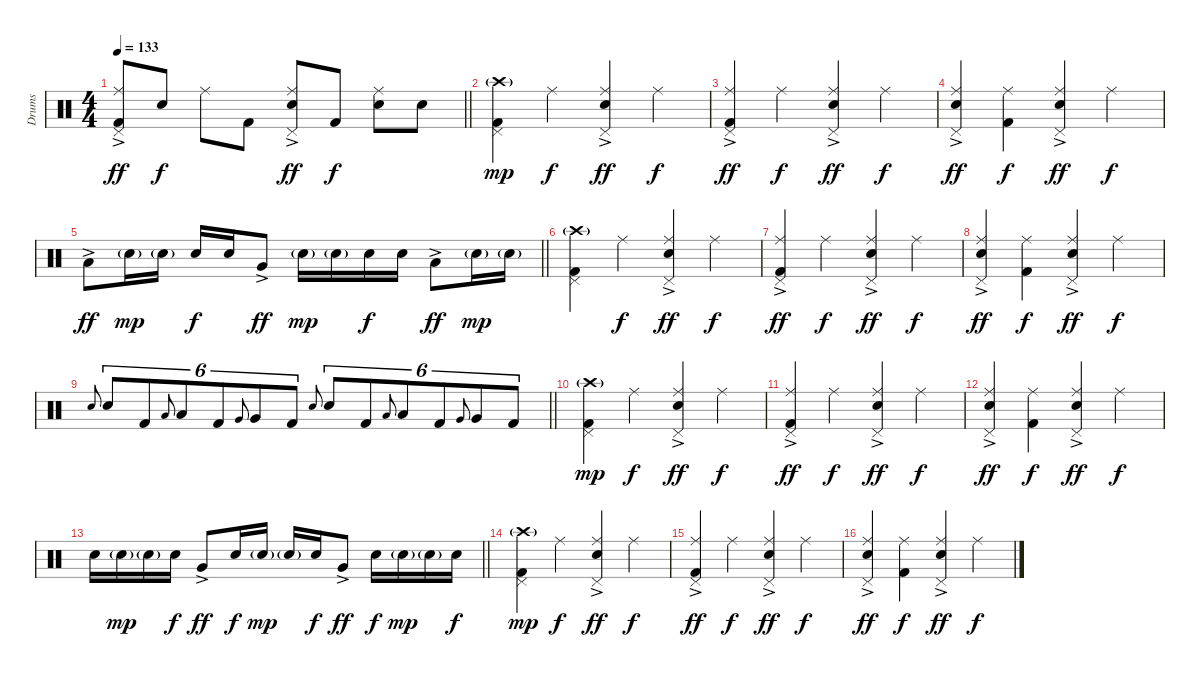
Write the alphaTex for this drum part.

\track ("Drums" "Drums") {instrument percussion}
\staff {score}
\articulation defaults
\ts (4 4)
\tempo 133
\clef neutral
\barLineRight lightlight
\ks c
("Pedal Hi-Hat (hit)" "Ride (middle)"{ac} "Kick (hit) 2").8{dy ff} "Snare (hit) 2".8{dy f} "Ride (middle)".8 "Kick (hit) 2".8 ("Pedal Hi-Hat (hit)" "Ride (middle)"{ac} "Snare (hit) 2").8{dy ff} "Kick (hit) 2".8{dy f} ("Ride (middle)" "Snare (hit) 2").8 "Snare (hit) 2".8 |
\section ("" "")
("Crash high (hit)"{g} "Pedal Hi-Hat (hit)" "Kick (hit) 2").4{dy mp} "Ride (middle)".4{dy f} ("Pedal Hi-Hat (hit)" "Ride (middle)"{ac} "Snare (hit) 2").4{dy ff} "Ride (middle)".4{dy f} |
("Pedal Hi-Hat (hit)" "Ride (middle)"{ac} "Kick (hit) 2").4{dy ff} "Ride (middle)".4{dy f} ("Pedal Hi-Hat (hit)" "Ride (middle)"{ac} "Snare (hit) 2").4{dy ff} "Ride (middle)".4{dy f} |
("Pedal Hi-Hat (hit)" "Ride (middle)"{ac} "Snare (hit) 2").4{dy ff} ("Ride (middle)" "Kick (hit) 2").4{dy f} ("Pedal Hi-Hat (hit)" "Ride (middle)"{ac} "Snare (hit) 2").4{dy ff} "Ride (middle)".4{dy f} |
\barLineRight lightlight "Low Tom (hit)"{ac}.8{dy ff} "Snare (hit) 2"{g}.16{dy mp} "Snare (hit) 2"{g}.16 "Snare (hit) 2".16{dy f} "Snare (hit) 2".16 "Very Low Tom (hit)"{ac}.8{dy ff} "Snare (hit) 2"{g}.16{dy mp} "Snare (hit) 2"{g}.16 "Snare (hit) 2".16{dy f} "Snare (hit) 2".16 "Low Floor Tom (hit)"{ac}.8{dy ff} "Snare (hit) 2"{g}.16{dy mp} "Snare (hit) 2"{g}.16
|
\section ("" "")
("Crash high (hit)"{g} "Pedal Hi-Hat (hit)" "Kick (hit) 2").4 "Ride (middle)".4{dy f} ("Pedal Hi-Hat (hit)" "Ride (middle)"{ac} "Snare (hit) 2").4{dy ff} "Ride (middle)".4{dy f} |
("Pedal Hi-Hat (hit)" "Ride (middle)"{ac} "Kick (hit) 2").4{dy ff} "Ride (middle)".4{dy f} ("Pedal Hi-Hat (hit)" "Ride (middle)"{ac} "Snare (hit) 2").4{dy ff} "Ride (middle)".4{dy f} |
("Pedal Hi-Hat (hit)" "Ride (middle)"{ac} "Snare (hit) 2").4{dy ff} ("Ride (middle)" "Kick (hit) 2").4{dy f} ("Pedal Hi-Hat (hit)" "Ride (middle)"{ac} "Snare (hit) 2").4{dy ff} "Ride (middle)".4{dy f} |
\barLineRight lightlight "Snare (hit) 2".8{gr onbeat} "Snare (hit) 2".8{tu (6 4)} "Kick (hit) 2".8{tu (6 4)} "Low Tom (hit)".8{gr onbeat} "Low Tom (hit)".8{tu (6 4)} "Kick (hit) 2".8{tu (6 4)} "Very Low Tom (hit)".8{gr onbeat} "Very Low Tom (hit)".8{tu (6 4)} "Kick (hit) 2".8{tu (6 4)} "Snare (hit) 2".8{gr onbeat} "Snare (hit) 2".8{tu (6 4)} "Kick (hit) 2".8{tu (6 4)} "Low Tom (hit)".8{gr onbeat} "Low Tom (hit)".8{tu (6 4)} "Kick (hit) 2".8{tu (6 4)} "Very Low Tom (hit)".8{gr onbeat} "Very Low Tom (hit)".8{tu (6 4)} "Kick (hit) 2".8{tu (6 4)}
|
\section ("" "")
("Crash high (hit)"{g} "Pedal Hi-Hat (hit)" "Kick (hit) 2").4{dy mp} "Ride (middle)".4{dy f} ("Pedal Hi-Hat (hit)" "Ride (middle)"{ac} "Snare (hit) 2").4{dy ff} "Ride (middle)".4{dy f} |
("Pedal Hi-Hat (hit)" "Ride (middle)"{ac} "Kick (hit) 2").4{dy ff} "Ride (middle)".4{dy f} ("Pedal Hi-Hat (hit)" "Ride (middle)"{ac} "Snare (hit) 2").4{dy ff} "Ride (middle)".4{dy f} |
("Pedal Hi-Hat (hit)" "Ride (middle)"{ac} "Snare (hit) 2").4{dy ff} ("Ride (middle)" "Kick (hit) 2").4{dy f} ("Pedal Hi-Hat (hit)" "Ride (middle)"{ac} "Snare (hit) 2").4{dy ff} "Ride (middle)".4{dy f} |
\barLineRight lightlight "Electric Snare (hit)".16 "Snare (hit) 2"{g}.16{dy mp} "Snare (hit) 2"{g}.16 "Electric Snare (hit)".16{dy f} "Very Low Tom (hit)"{ac}.8{dy ff} "Electric Snare (hit)".16{dy f} "Snare (hit) 2"{g}.16{dy mp} "Snare (hit) 2"{g}.16 "Electric Snare (hit)".16{dy f} "Very Low Tom (hit)"{ac}.8{dy ff} "Electric Snare (hit)".16{dy f} "Snare (hit) 2"{g}.16{dy mp} "Snare (hit) 2"{g}.16 "Electric Snare (hit)".16{dy f}
|
\section ("" "")
("Crash high (hit)"{g} "Pedal Hi-Hat (hit)" "Kick (hit) 2").4{dy mp} "Ride (middle)".4{dy f} ("Pedal Hi-Hat (hit)" "Ride (middle)"{ac} "Snare (hit) 2").4{dy ff} "Ride (middle)".4{dy f} |
("Pedal Hi-Hat (hit)" "Ride (middle)"{ac} "Kick (hit) 2").4{dy ff} "Ride (middle)".4{dy f} ("Pedal Hi-Hat (hit)" "Ride (middle)"{ac} "Snare (hit) 2").4{dy ff} "Ride (middle)".4{dy f} |
("Pedal Hi-Hat (hit)" "Ride (middle)"{ac} "Snare (hit) 2").4{dy ff} ("Ride (middle)" "Kick (hit) 2").4{dy f} ("Pedal Hi-Hat (hit)" "Ride (middle)"{ac} "Snare (hit) 2").4{dy ff} "Ride (middle)".4{dy f}
